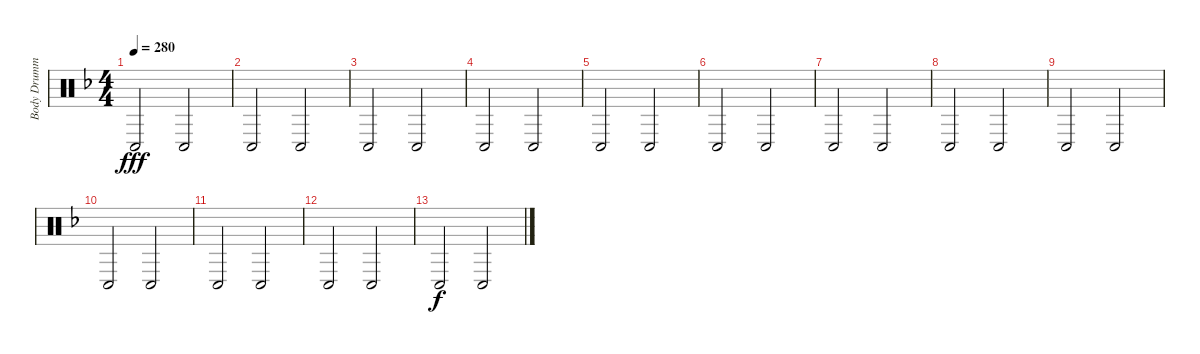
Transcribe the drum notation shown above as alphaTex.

\track ("Body Drumming" "Body Drumm") {instrument percussion}
\staff {score}
\articulation defaults
\ts (4 4)
\tempo 280
\clef neutral
\ks f "Conga low (hit)".2{dy fff} "Conga low (hit)".2
|
"Conga low (hit)".2 "Conga low (hit)".2 |
"Conga low (hit)".2 "Conga low (hit)".2 |
"Conga low (hit)".2 "Conga low (hit)".2 |
"Conga low (hit)".2 "Conga low (hit)".2 |
"Conga low (hit)".2 "Conga low (hit)".2 |
"Conga low (hit)".2 "Conga low (hit)".2 |
"Conga low (hit)".2 "Conga low (hit)".2 |
"Conga low (hit)".2 "Conga low (hit)".2 |
"Conga low (hit)".2 "Conga low (hit)".2 |
"Conga low (hit)".2 "Conga low (hit)".2 |
"Conga low (hit)".2 "Conga low (hit)".2 |
"Conga low (hit)".2{dy f} "Conga low (hit)".2
